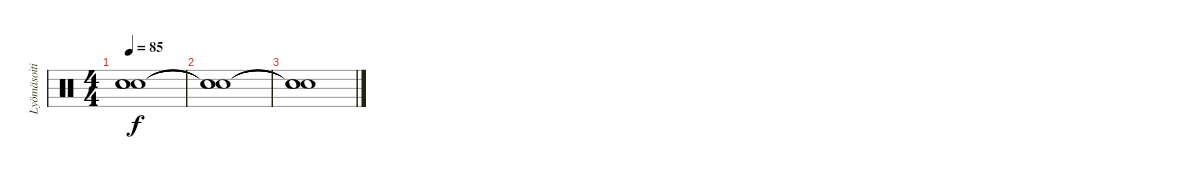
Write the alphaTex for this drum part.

\track ("Lyömäsoitin" "Lyömäsoiti") {instrument percussion}
\staff {score}
\articulation defaults
\ts (4 4)
\tempo 85
\clef neutral
\ks c
("Snare (hit)"{t} "Snare (hit)"{t} "Snare (hit)"{t}).1{dy f} |
("Snare (hit)"{t} "Snare (hit)"{t} "Snare (hit)"{t}).1 |
("Snare (hit)"{t} "Snare (hit)"{t} "Snare (hit)"{t}).1
